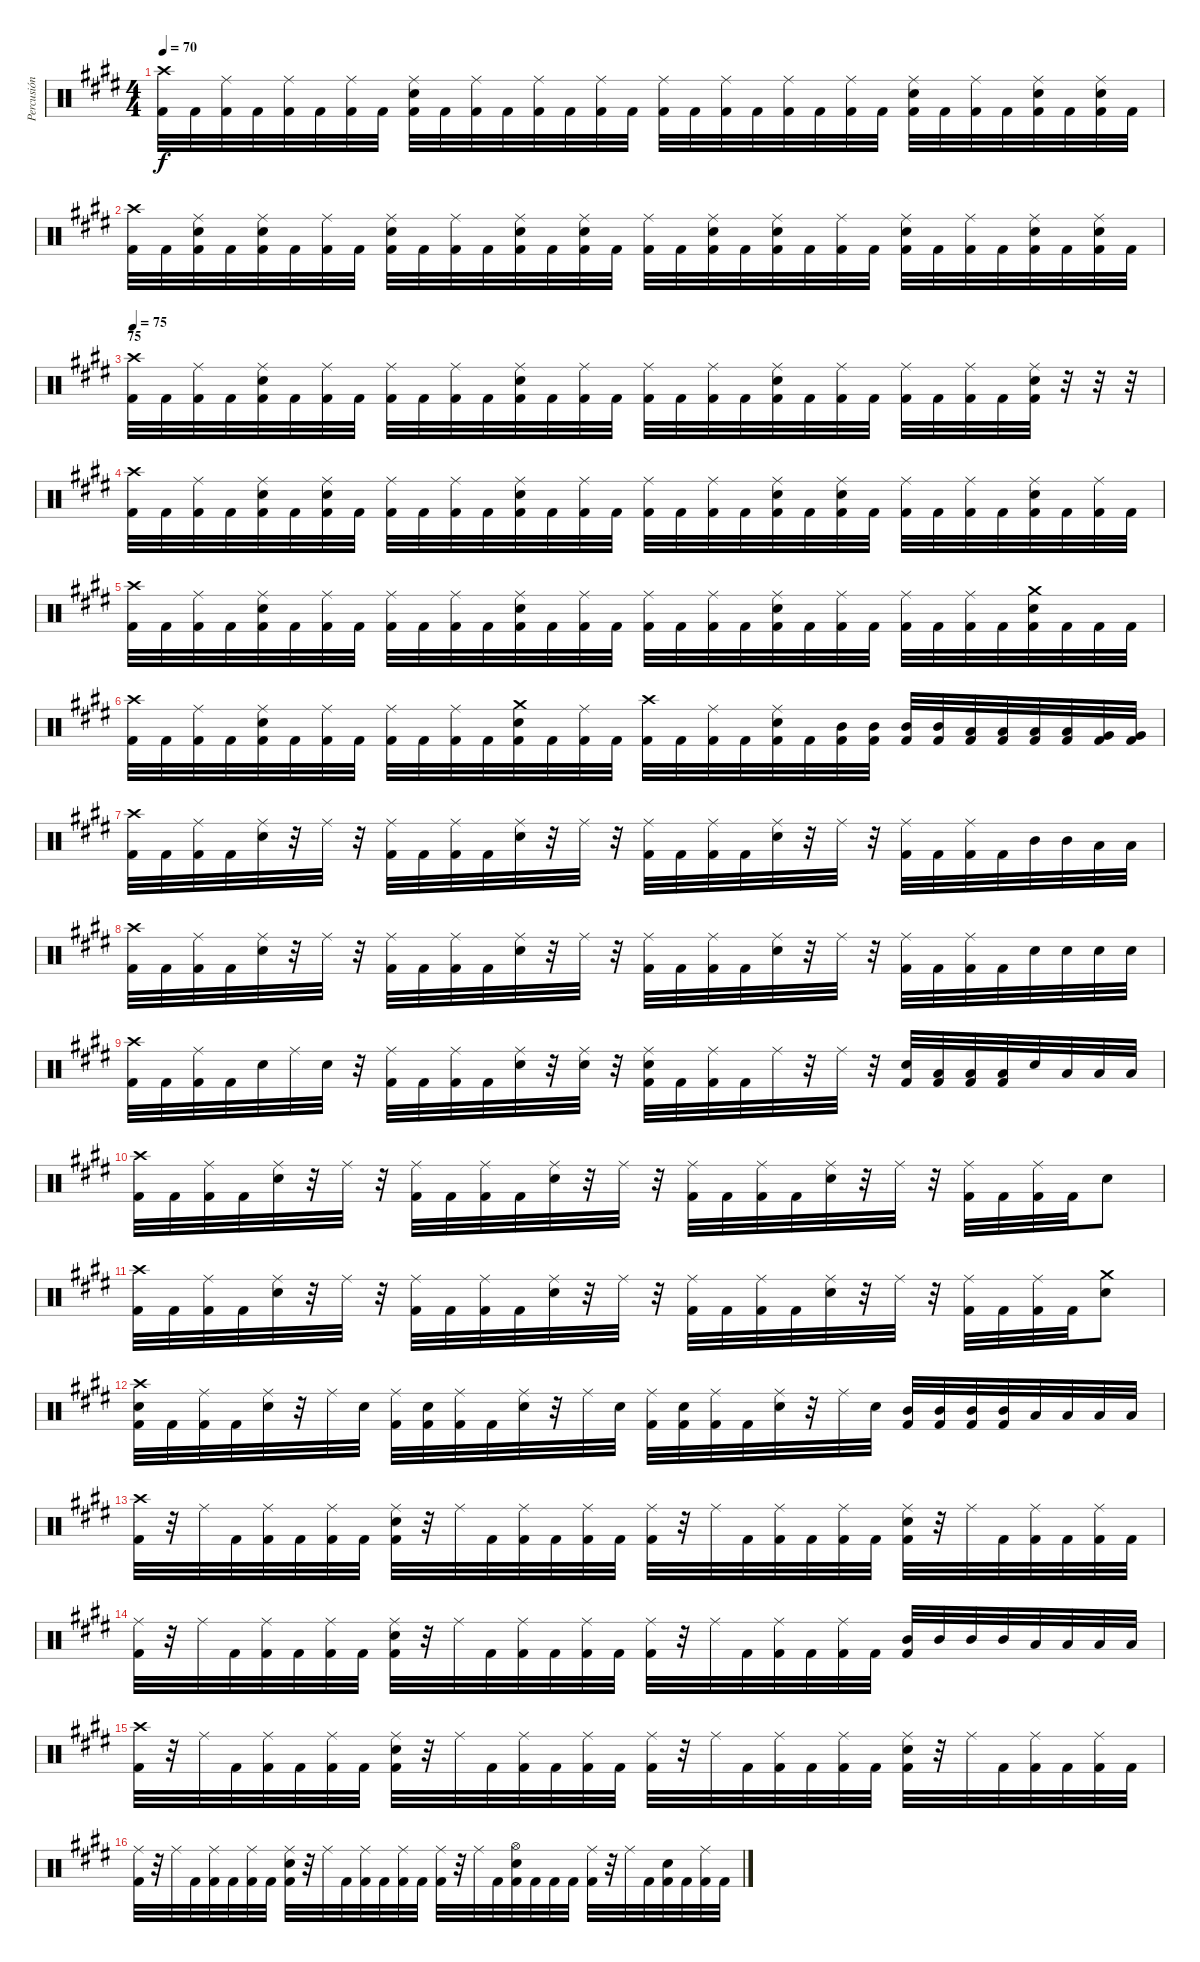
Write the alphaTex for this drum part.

\track ("Percusión" "Percusión") {instrument percussion}
\staff {score}
\articulation defaults
\ts (4 4)
\tempo 70
\clef neutral
\ks e
("Crash high (hit)" "Kick (hit) 2").32{dy f} "Kick (hit) 2".32 ("Ride (middle)" "Kick (hit) 2").32 "Kick (hit) 2".32 ("Ride (middle)" "Kick (hit) 2").32 "Kick (hit) 2".32 ("Ride (middle)" "Kick (hit) 2").32 "Kick (hit) 2".32 ("Ride (middle)" "Snare (hit) 2" "Kick (hit) 2").32 "Kick (hit) 2".32 ("Ride (middle)" "Kick (hit) 2").32 "Kick (hit) 2".32 ("Ride (middle)" "Kick (hit) 2").32 "Kick (hit) 2".32 ("Ride (middle)" "Kick (hit) 2").32 "Kick (hit) 2".32 ("Ride (middle)" "Kick (hit) 2").32 "Kick (hit) 2".32 ("Ride (middle)" "Kick (hit) 2").32 "Kick (hit) 2".32 ("Ride (middle)" "Kick (hit) 2").32 "Kick (hit) 2".32 ("Ride (middle)" "Kick (hit) 2").32 "Kick (hit) 2".32 ("Ride (middle)" "Snare (hit) 2" "Kick (hit) 2").32 "Kick (hit) 2".32 ("Ride (middle)" "Kick (hit) 2").32 "Kick (hit) 2".32 ("Ride (middle)" "Snare (hit) 2" "Kick (hit) 2").32 "Kick (hit) 2".32 ("Ride (middle)" "Snare (hit) 2" "Kick (hit) 2").32 "Kick (hit) 2".32 |
("Crash high (hit)" "Kick (hit) 2").32 "Kick (hit) 2".32 ("Ride (middle)" "Snare (hit) 2" "Kick (hit) 2").32 "Kick (hit) 2".32 ("Ride (middle)" "Snare (hit) 2" "Kick (hit) 2").32 "Kick (hit) 2".32 ("Ride (middle)" "Kick (hit) 2").32 "Kick (hit) 2".32 ("Ride (middle)" "Snare (hit) 2" "Kick (hit) 2").32 "Kick (hit) 2".32 ("Ride (middle)" "Kick (hit) 2").32 "Kick (hit) 2".32 ("Ride (middle)" "Snare (hit) 2" "Kick (hit) 2").32 "Kick (hit) 2".32 ("Ride (middle)" "Snare (hit) 2" "Kick (hit) 2").32 "Kick (hit) 2".32 ("Ride (middle)" "Kick (hit) 2").32 "Kick (hit) 2".32 ("Ride (middle)" "Snare (hit) 2" "Kick (hit) 2").32 "Kick (hit) 2".32 ("Ride (middle)" "Snare (hit) 2" "Kick (hit) 2").32 "Kick (hit) 2".32 ("Ride (middle)" "Kick (hit) 2").32 "Kick (hit) 2".32 ("Ride (middle)" "Snare (hit) 2" "Kick (hit) 2").32 "Kick (hit) 2".32 ("Ride (middle)" "Kick (hit) 2").32 "Kick (hit) 2".32 ("Ride (middle)" "Snare (hit) 2" "Kick (hit) 2").32 "Kick (hit) 2".32 ("Ride (middle)" "Snare (hit) 2" "Kick (hit) 2").32 "Kick (hit) 2".32 |
\section ("" "75")
\tempo 75
("Crash high (hit)" "Kick (hit) 2").32 "Kick (hit) 2".32 ("Ride (middle)" "Kick (hit) 2").32 "Kick (hit) 2".32 ("Ride (middle)" "Snare (hit) 2" "Kick (hit) 2").32 "Kick (hit) 2".32 ("Ride (middle)" "Kick (hit) 2").32 "Kick (hit) 2".32 ("Ride (middle)" "Kick (hit) 2").32 "Kick (hit) 2".32 ("Ride (middle)" "Kick (hit) 2").32 "Kick (hit) 2".32 ("Ride (middle)" "Snare (hit) 2" "Kick (hit) 2").32 "Kick (hit) 2".32 ("Ride (middle)" "Kick (hit) 2").32 "Kick (hit) 2".32 ("Ride (middle)" "Kick (hit) 2").32 "Kick (hit) 2".32 ("Ride (middle)" "Kick (hit) 2").32 "Kick (hit) 2".32 ("Ride (middle)" "Snare (hit) 2" "Kick (hit) 2").32 "Kick (hit) 2".32 ("Ride (middle)" "Kick (hit) 2").32 "Kick (hit) 2".32 ("Ride (middle)" "Kick (hit) 2").32 "Kick (hit) 2".32 ("Ride (middle)" "Kick (hit) 2").32 "Kick (hit) 2".32 ("Ride (middle)" "Snare (hit) 2" "Kick (hit) 2").32 r.32 r.32 r.32 |
("Crash high (hit)" "Kick (hit) 2").32 "Kick (hit) 2".32 ("Ride (middle)" "Kick (hit) 2").32 "Kick (hit) 2".32 ("Ride (middle)" "Snare (hit) 2" "Kick (hit) 2").32 "Kick (hit) 2".32 ("Ride (middle)" "Snare (hit) 2" "Kick (hit) 2").32 "Kick (hit) 2".32 ("Ride (middle)" "Kick (hit) 2").32 "Kick (hit) 2".32 ("Ride (middle)" "Kick (hit) 2").32 "Kick (hit) 2".32 ("Ride (middle)" "Snare (hit) 2" "Kick (hit) 2").32 "Kick (hit) 2".32 ("Ride (middle)" "Kick (hit) 2").32 "Kick (hit) 2".32 ("Ride (middle)" "Kick (hit) 2").32 "Kick (hit) 2".32 ("Ride (middle)" "Kick (hit) 2").32 "Kick (hit) 2".32 ("Ride (middle)" "Snare (hit) 2" "Kick (hit) 2").32 "Kick (hit) 2".32 ("Ride (middle)" "Snare (hit) 2" "Kick (hit) 2").32 "Kick (hit) 2".32 ("Ride (middle)" "Kick (hit) 2").32 "Kick (hit) 2".32 ("Ride (middle)" "Kick (hit) 2").32 "Kick (hit) 2".32 ("Ride (middle)" "Snare (hit) 2" "Kick (hit) 2").32 "Kick (hit) 2".32 ("Ride (middle)" "Kick (hit) 2").32 "Kick (hit) 2".32 |
("Crash high (hit)" "Kick (hit) 2").32 "Kick (hit) 2".32 ("Ride (middle)" "Kick (hit) 2").32 "Kick (hit) 2".32 ("Ride (middle)" "Snare (hit) 2" "Kick (hit) 2").32 "Kick (hit) 2".32 ("Ride (middle)" "Kick (hit) 2").32 "Kick (hit) 2".32 ("Ride (middle)" "Kick (hit) 2").32 "Kick (hit) 2".32 ("Ride (middle)" "Kick (hit) 2").32 "Kick (hit) 2".32 ("Ride (middle)" "Snare (hit) 2" "Kick (hit) 2").32 "Kick (hit) 2".32 ("Ride (middle)" "Kick (hit) 2").32 "Kick (hit) 2".32 ("Ride (middle)" "Kick (hit) 2").32 "Kick (hit) 2".32 ("Ride (middle)" "Kick (hit) 2").32 "Kick (hit) 2".32 ("Ride (middle)" "Snare (hit) 2" "Kick (hit) 2").32 "Kick (hit) 2".32 ("Ride (middle)" "Kick (hit) 2").32 "Kick (hit) 2".32 ("Ride (middle)" "Kick (hit) 2").32 "Kick (hit) 2".32 ("Ride (middle)" "Kick (hit) 2").32 "Kick (hit) 2".32 ("Crash medium (hit)" "Snare (hit) 2" "Kick (hit) 2").32 "Kick (hit) 2".32 "Kick (hit) 2".32 "Kick (hit) 2".32 |
("Crash high (hit)" "Kick (hit) 2").32 "Kick (hit) 2".32 ("Ride (middle)" "Kick (hit) 2").32 "Kick (hit) 2".32 ("Ride (middle)" "Snare (hit) 2" "Kick (hit) 2").32 "Kick (hit) 2".32 ("Ride (middle)" "Kick (hit) 2").32 "Kick (hit) 2".32 ("Ride (middle)" "Kick (hit) 2").32 "Kick (hit) 2".32 ("Ride (middle)" "Kick (hit) 2").32 "Kick (hit) 2".32 ("Crash medium (hit)" "Snare (hit) 2" "Kick (hit) 2").32 "Kick (hit) 2".32 ("Ride (middle)" "Kick (hit) 2").32 "Kick (hit) 2".32 ("Crash high (hit)" "Kick (hit) 2").32 "Kick (hit) 2".32 ("Ride (middle)" "Kick (hit) 2").32 "Kick (hit) 2".32 ("Ride (middle)" "Snare (hit) 2" "Kick (hit) 2").32 "Kick (hit) 2".32 ("Mid Tom (hit)" "Kick (hit) 2").32 ("Mid Tom (hit)" "Kick (hit) 2").32 ("Mid Tom (hit)" "Kick (hit) 2").32 ("Mid Tom (hit)" "Kick (hit) 2").32 ("Low Tom (hit)" "Kick (hit) 2").32 ("Low Tom (hit)" "Kick (hit) 2").32 ("Low Tom (hit)" "Kick (hit) 2").32 ("Low Tom (hit)" "Kick (hit) 2").32 ("Very Low Tom (hit)" "Kick (hit) 2").32 ("Very Low Tom (hit)" "Kick (hit) 2").32 |
("Crash high (hit)" "Kick (hit) 2").32 "Kick (hit) 2".32 ("Ride (middle)" "Kick (hit) 2").32 "Kick (hit) 2".32 ("Ride (middle)" "Snare (hit) 2").32 r.32 "Ride (middle)".32 r.32 ("Ride (middle)" "Kick (hit) 2").32 "Kick (hit) 2".32 ("Ride (middle)" "Kick (hit) 2").32 "Kick (hit) 2".32 ("Ride (middle)" "Snare (hit) 2").32 r.32 "Ride (middle)".32 r.32 ("Ride (middle)" "Kick (hit) 2").32 "Kick (hit) 2".32 ("Ride (middle)" "Kick (hit) 2").32 "Kick (hit) 2".32 ("Ride (middle)" "Snare (hit) 2").32 r.32 "Ride (middle)".32 r.32 ("Ride (middle)" "Kick (hit) 2").32 "Kick (hit) 2".32 ("Ride (middle)" "Kick (hit) 2").32 "Kick (hit) 2".32 "Mid Tom (hit)".32 "Mid Tom (hit)".32 "Low Tom (hit)".32 "Low Tom (hit)".32 |
("Crash high (hit)" "Kick (hit) 2").32 "Kick (hit) 2".32 ("Ride (middle)" "Kick (hit) 2").32 "Kick (hit) 2".32 ("Ride (middle)" "Snare (hit) 2").32 r.32 "Ride (middle)".32 r.32 ("Ride (middle)" "Kick (hit) 2").32 "Kick (hit) 2".32 ("Ride (middle)" "Kick (hit) 2").32 "Kick (hit) 2".32 ("Ride (middle)" "Snare (hit) 2").32 r.32 "Ride (middle)".32 r.32 ("Ride (middle)" "Kick (hit) 2").32 "Kick (hit) 2".32 ("Ride (middle)" "Kick (hit) 2").32 "Kick (hit) 2".32 ("Ride (middle)" "Snare (hit) 2").32 r.32 "Ride (middle)".32 r.32 ("Ride (middle)" "Kick (hit) 2").32 "Kick (hit) 2".32 ("Ride (middle)" "Kick (hit) 2").32 "Kick (hit) 2".32 "Snare (hit) 2".32 "Snare (hit) 2".32 "Snare (hit) 2".32 "Snare (hit) 2".32 |
("Crash high (hit)" "Kick (hit) 2").32 "Kick (hit) 2".32 ("Ride (middle)" "Kick (hit) 2").32 "Kick (hit) 2".32 "Snare (hit) 2".32 "Ride (middle)".32 "Snare (hit) 2".32 r.32 ("Ride (middle)" "Kick (hit) 2").32 "Kick (hit) 2".32 ("Ride (middle)" "Kick (hit) 2").32 "Kick (hit) 2".32 ("Ride (middle)" "Snare (hit) 2").32 r.32 ("Ride (middle)" "Snare (hit) 2").32 r.32 ("Ride (middle)" "Snare (hit) 2" "Kick (hit) 2").32 "Kick (hit) 2".32 ("Ride (middle)" "Kick (hit) 2").32 "Kick (hit) 2".32 "Ride (middle)".32 r.32 "Ride (middle)".32 r.32 ("Snare (hit) 2" "Kick (hit) 2").32 ("Low Tom (hit)" "Kick (hit) 2").32 ("Low Tom (hit)" "Kick (hit) 2").32 ("Low Tom (hit)" "Kick (hit) 2").32 "Snare (hit) 2".32 "Low Tom (hit)".32 "Low Tom (hit)".32 "Low Tom (hit)".32 |
("Crash high (hit)" "Kick (hit) 2").32 "Kick (hit) 2".32 ("Ride (middle)" "Kick (hit) 2").32 "Kick (hit) 2".32 ("Ride (middle)" "Snare (hit) 2").32 r.32 "Ride (middle)".32 r.32 ("Ride (middle)" "Kick (hit) 2").32 "Kick (hit) 2".32 ("Ride (middle)" "Kick (hit) 2").32 "Kick (hit) 2".32 ("Ride (middle)" "Snare (hit) 2").32 r.32 "Ride (middle)".32 r.32 ("Ride (middle)" "Kick (hit) 2").32 "Kick (hit) 2".32 ("Ride (middle)" "Kick (hit) 2").32 "Kick (hit) 2".32 ("Ride (middle)" "Snare (hit) 2").32 r.32 "Ride (middle)".32 r.32 ("Ride (middle)" "Kick (hit) 2").32 "Kick (hit) 2".32 ("Ride (middle)" "Kick (hit) 2").32 "Kick (hit) 2".32 "Snare (hit) 2".8 |
("Crash high (hit)" "Kick (hit) 2").32 "Kick (hit) 2".32 ("Ride (middle)" "Kick (hit) 2").32 "Kick (hit) 2".32 ("Ride (middle)" "Snare (hit) 2").32 r.32 "Ride (middle)".32 r.32 ("Ride (middle)" "Kick (hit) 2").32 "Kick (hit) 2".32 ("Ride (middle)" "Kick (hit) 2").32 "Kick (hit) 2".32 ("Ride (middle)" "Snare (hit) 2").32 r.32 "Ride (middle)".32 r.32 ("Ride (middle)" "Kick (hit) 2").32 "Kick (hit) 2".32 ("Ride (middle)" "Kick (hit) 2").32 "Kick (hit) 2".32 ("Ride (middle)" "Snare (hit) 2").32 r.32 "Ride (middle)".32 r.32 ("Ride (middle)" "Kick (hit) 2").32 "Kick (hit) 2".32 ("Ride (middle)" "Kick (hit) 2").32 "Kick (hit) 2".32 ("Crash medium (hit)" "Snare (hit) 2").8 |
("Crash high (hit)" "Snare (hit) 2" "Kick (hit) 2").32 "Kick (hit) 2".32 ("Ride (middle)" "Kick (hit) 2").32 "Kick (hit) 2".32 ("Ride (middle)" "Snare (hit) 2").32 r.32 "Ride (middle)".32 "Snare (hit) 2".32 ("Ride (middle)" "Kick (hit) 2").32 ("Snare (hit) 2" "Kick (hit) 2").32 ("Ride (middle)" "Kick (hit) 2").32 "Kick (hit) 2".32 ("Ride (middle)" "Snare (hit) 2").32 r.32 "Ride (middle)".32 "Snare (hit) 2".32 ("Ride (middle)" "Kick (hit) 2").32 ("Snare (hit) 2" "Kick (hit) 2").32 ("Ride (middle)" "Kick (hit) 2").32 "Kick (hit) 2".32 ("Ride (middle)" "Snare (hit) 2").32 r.32 "Ride (middle)".32 "Snare (hit) 2".32 ("Mid Tom (hit)" "Kick (hit) 2").32 ("Mid Tom (hit)" "Kick (hit) 2").32 ("Mid Tom (hit)" "Kick (hit) 2").32 ("Mid Tom (hit)" "Kick (hit) 2").32 "Low Tom (hit)".32 "Low Tom (hit)".32 "Low Tom (hit)".32 "Low Tom (hit)".32 |
("Crash high (hit)" "Kick (hit) 2").32 r.32 "Ride (middle)".32 "Kick (hit) 2".32 ("Ride (middle)" "Kick (hit) 2").32 "Kick (hit) 2".32 ("Ride (middle)" "Kick (hit) 2").32 "Kick (hit) 2".32 ("Ride (middle)" "Snare (hit) 2" "Kick (hit) 2").32 r.32 "Ride (middle)".32 "Kick (hit) 2".32 ("Ride (middle)" "Kick (hit) 2").32 "Kick (hit) 2".32 ("Ride (middle)" "Kick (hit) 2").32 "Kick (hit) 2".32 ("Ride (middle)" "Kick (hit) 2").32 r.32 "Ride (middle)".32 "Kick (hit) 2".32 ("Ride (middle)" "Kick (hit) 2").32 "Kick (hit) 2".32 ("Ride (middle)" "Kick (hit) 2").32 "Kick (hit) 2".32 ("Ride (middle)" "Snare (hit) 2" "Kick (hit) 2").32 r.32 "Ride (middle)".32 "Kick (hit) 2".32 ("Ride (middle)" "Kick (hit) 2").32 "Kick (hit) 2".32 ("Ride (middle)" "Kick (hit) 2").32 "Kick (hit) 2".32 |
("Ride (middle)" "Kick (hit) 2").32 r.32 "Ride (middle)".32 "Kick (hit) 2".32 ("Ride (middle)" "Kick (hit) 2").32 "Kick (hit) 2".32 ("Ride (middle)" "Kick (hit) 2").32 "Kick (hit) 2".32 ("Ride (middle)" "Snare (hit) 2" "Kick (hit) 2").32 r.32 "Ride (middle)".32 "Kick (hit) 2".32 ("Ride (middle)" "Kick (hit) 2").32 "Kick (hit) 2".32 ("Ride (middle)" "Kick (hit) 2").32 "Kick (hit) 2".32 ("Ride (middle)" "Kick (hit) 2").32 r.32 "Ride (middle)".32 "Kick (hit) 2".32 ("Ride (middle)" "Kick (hit) 2").32 "Kick (hit) 2".32 ("Ride (middle)" "Kick (hit) 2").32 "Kick (hit) 2".32 ("Mid Tom (hit)" "Kick (hit) 2").32 "Mid Tom (hit)".32 "Mid Tom (hit)".32 "Mid Tom (hit)".32 "Low Tom (hit)".32 "Low Tom (hit)".32 "Low Tom (hit)".32 "Low Tom (hit)".32 |
("Crash high (hit)" "Kick (hit) 2").32 r.32 "Ride (middle)".32 "Kick (hit) 2".32 ("Ride (middle)" "Kick (hit) 2").32 "Kick (hit) 2".32 ("Ride (middle)" "Kick (hit) 2").32 "Kick (hit) 2".32 ("Ride (middle)" "Snare (hit) 2" "Kick (hit) 2").32 r.32 "Ride (middle)".32 "Kick (hit) 2".32 ("Ride (middle)" "Kick (hit) 2").32 "Kick (hit) 2".32 ("Ride (middle)" "Kick (hit) 2").32 "Kick (hit) 2".32 ("Ride (middle)" "Kick (hit) 2").32 r.32 "Ride (middle)".32 "Kick (hit) 2".32 ("Ride (middle)" "Kick (hit) 2").32 "Kick (hit) 2".32 ("Ride (middle)" "Kick (hit) 2").32 "Kick (hit) 2".32 ("Ride (middle)" "Snare (hit) 2" "Kick (hit) 2").32 r.32 "Ride (middle)".32 "Kick (hit) 2".32 ("Ride (middle)" "Kick (hit) 2").32 "Kick (hit) 2".32 ("Ride (middle)" "Kick (hit) 2").32 "Kick (hit) 2".32 |
("Ride (middle)" "Kick (hit) 2").32 r.32 "Ride (middle)".32 "Kick (hit) 2".32 ("Ride (middle)" "Kick (hit) 2").32 "Kick (hit) 2".32 ("Ride (middle)" "Kick (hit) 2").32 "Kick (hit) 2".32 ("Ride (middle)" "Snare (hit) 2" "Kick (hit) 2").32 r.32 "Ride (middle)".32 "Kick (hit) 2".32 ("Ride (middle)" "Kick (hit) 2").32 "Kick (hit) 2".32 ("Ride (middle)" "Kick (hit) 2").32 "Kick (hit) 2".32 ("Ride (middle)" "Kick (hit) 2").32 r.32 "Ride (middle)".32 "Kick (hit) 2".32 ("Hi-Hat (open)" "Electric Snare (hit)" "Kick (hit) 2").32 "Kick (hit) 2".32 "Kick (hit) 2".32 "Kick (hit) 2".32 ("Ride (middle)" "Kick (hit) 2").32 r.32 "Ride (middle)".32 "Kick (hit) 2".32 ("Snare (hit) 2" "Kick (hit) 2").32 "Kick (hit) 2".32 ("Ride (middle)" "Kick (hit) 2").32 "Kick (hit) 2".32
